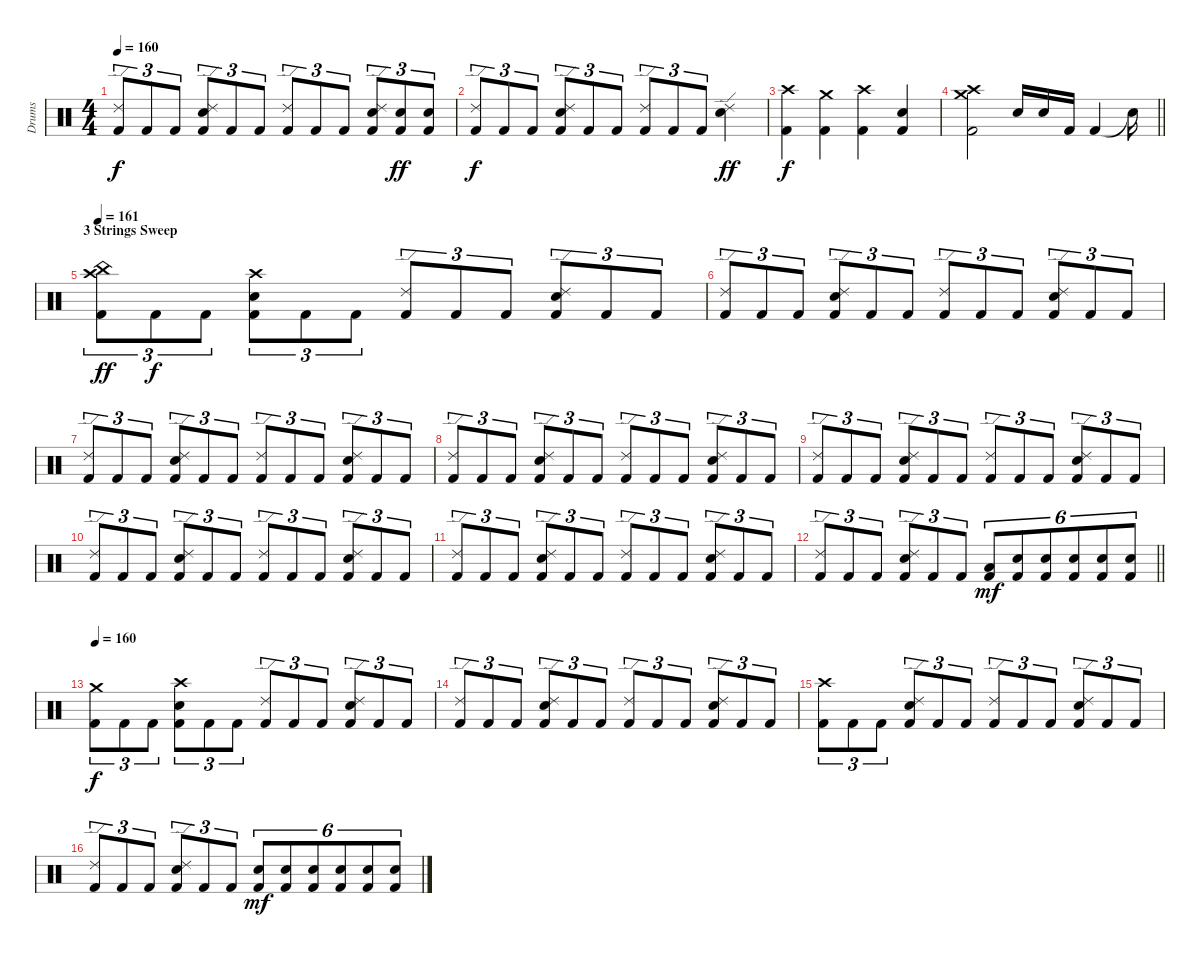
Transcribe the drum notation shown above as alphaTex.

\track ("Drums" "Drums") {instrument percussion}
\staff {score}
\articulation defaults
\ts (4 4)
\tempo 160
\clef neutral
\ks c
("Ride (edge) 2" "Kick (hit) 2").8{tu (3 2) dy f} "Kick (hit) 2".8{tu (3 2)} "Kick (hit) 2".8{tu (3 2)} ("Ride (edge) 2" "Snare (hit) 2" "Kick (hit) 2").8{tu (3 2)} "Kick (hit) 2".8{tu (3 2)} "Kick (hit) 2".8{tu (3 2)} ("Ride (edge) 2" "Kick (hit) 2").8{tu (3 2)} "Kick (hit) 2".8{tu (3 2)} "Kick (hit) 2".8{tu (3 2)} ("Ride (edge) 2" "Snare (hit) 2" "Kick (hit) 2").8{tu (3 2)} ("Snare (hit) 2" "Kick (hit) 2").8{tu (3 2) dy ff} ("Snare (hit) 2" "Kick (hit) 2").8{tu (3 2)} |
\ks aminor
("Ride (edge) 2" "Kick (hit) 2").8{tu (3 2) dy f} "Kick (hit) 2".8{tu (3 2)} "Kick (hit) 2".8{tu (3 2)} ("Ride (edge) 2" "Snare (hit) 2" "Kick (hit) 2").8{tu (3 2)} "Kick (hit) 2".8{tu (3 2)} "Kick (hit) 2".8{tu (3 2)} ("Ride (edge) 2" "Kick (hit) 2").8{tu (3 2)} "Kick (hit) 2".8{tu (3 2)} "Kick (hit) 2".8{tu (3 2)} ("Ride (edge) 2" "Electric Snare (hit)").4{dy ff} |
\ks c
("Crash high (hit)" "Kick (hit) 2").4{dy f} ("Crash medium (hit)" "Kick (hit) 2").4 ("Crash high (hit)" "Kick (hit) 2").4 ("Electric Snare (hit)" "Kick (hit) 2").4 |
\barLineRight lightlight
("Crash high (hit)" "Crash medium (hit)" "Kick (hit) 2").2 "Snare (hit) 2".16 "Snare (hit) 2".16 "Kick (hit) 2".16 "Kick (hit) 2".4 "Snare (hit)"{t}.16 |
\section ("" "3 Strings Sweep ")
\tempo 161
("China (hit)" "Crash high (hit)" "Kick (hit) 2").8{tu (3 2) dy ff} "Kick (hit) 2".8{tu (3 2) dy f} "Kick (hit) 2".8{tu (3 2)} ("Crash high (hit)" "Snare (hit) 2" "Kick (hit) 2").8{tu (3 2)} "Kick (hit) 2".8{tu (3 2)} "Kick (hit) 2".8{tu (3 2)} ("Ride (edge) 2" "Kick (hit) 2").8{tu (3 2)} "Kick (hit) 2".8{tu (3 2)} "Kick (hit) 2".8{tu (3 2)} ("Ride (edge) 2" "Snare (hit) 2" "Kick (hit) 2").8{tu (3 2)} "Kick (hit) 2".8{tu (3 2)} "Kick (hit) 2".8{tu (3 2)} |
("Ride (edge) 2" "Kick (hit) 2").8{tu (3 2)} "Kick (hit) 2".8{tu (3 2)} "Kick (hit) 2".8{tu (3 2)} ("Ride (edge) 2" "Snare (hit) 2" "Kick (hit) 2").8{tu (3 2)} "Kick (hit) 2".8{tu (3 2)} "Kick (hit) 2".8{tu (3 2)} ("Ride (edge) 2" "Kick (hit) 2").8{tu (3 2)} "Kick (hit) 2".8{tu (3 2)} "Kick (hit) 2".8{tu (3 2)} ("Ride (edge) 2" "Snare (hit) 2" "Kick (hit) 2").8{tu (3 2)} "Kick (hit) 2".8{tu (3 2)} "Kick (hit) 2".8{tu (3 2)} |
("Ride (edge) 2" "Kick (hit) 2").8{tu (3 2)} "Kick (hit) 2".8{tu (3 2)} "Kick (hit) 2".8{tu (3 2)} ("Ride (edge) 2" "Snare (hit) 2" "Kick (hit) 2").8{tu (3 2)} "Kick (hit) 2".8{tu (3 2)} "Kick (hit) 2".8{tu (3 2)} ("Ride (edge) 2" "Kick (hit) 2").8{tu (3 2)} "Kick (hit) 2".8{tu (3 2)} "Kick (hit) 2".8{tu (3 2)} ("Ride (edge) 2" "Snare (hit) 2" "Kick (hit) 2").8{tu (3 2)} "Kick (hit) 2".8{tu (3 2)} "Kick (hit) 2".8{tu (3 2)} |
("Ride (edge) 2" "Kick (hit) 2").8{tu (3 2)} "Kick (hit) 2".8{tu (3 2)} "Kick (hit) 2".8{tu (3 2)} ("Ride (edge) 2" "Snare (hit) 2" "Kick (hit) 2").8{tu (3 2)} "Kick (hit) 2".8{tu (3 2)} "Kick (hit) 2".8{tu (3 2)} ("Ride (edge) 2" "Kick (hit) 2").8{tu (3 2)} "Kick (hit) 2".8{tu (3 2)} "Kick (hit) 2".8{tu (3 2)} ("Ride (edge) 2" "Snare (hit) 2" "Kick (hit) 2").8{tu (3 2)} "Kick (hit) 2".8{tu (3 2)} "Kick (hit) 2".8{tu (3 2)} |
("Ride (edge) 2" "Kick (hit) 2").8{tu (3 2)} "Kick (hit) 2".8{tu (3 2)} "Kick (hit) 2".8{tu (3 2)} ("Ride (edge) 2" "Snare (hit) 2" "Kick (hit) 2").8{tu (3 2)} "Kick (hit) 2".8{tu (3 2)} "Kick (hit) 2".8{tu (3 2)} ("Ride (edge) 2" "Kick (hit) 2").8{tu (3 2)} "Kick (hit) 2".8{tu (3 2)} "Kick (hit) 2".8{tu (3 2)} ("Ride (edge) 2" "Snare (hit) 2" "Kick (hit) 2").8{tu (3 2)} "Kick (hit) 2".8{tu (3 2)} "Kick (hit) 2".8{tu (3 2)} |
("Ride (edge) 2" "Kick (hit) 2").8{tu (3 2)} "Kick (hit) 2".8{tu (3 2)} "Kick (hit) 2".8{tu (3 2)} ("Ride (edge) 2" "Snare (hit) 2" "Kick (hit) 2").8{tu (3 2)} "Kick (hit) 2".8{tu (3 2)} "Kick (hit) 2".8{tu (3 2)} ("Ride (edge) 2" "Kick (hit) 2").8{tu (3 2)} "Kick (hit) 2".8{tu (3 2)} "Kick (hit) 2".8{tu (3 2)} ("Ride (edge) 2" "Snare (hit) 2" "Kick (hit) 2").8{tu (3 2)} "Kick (hit) 2".8{tu (3 2)} "Kick (hit) 2".8{tu (3 2)} |
("Ride (edge) 2" "Kick (hit) 2").8{tu (3 2)} "Kick (hit) 2".8{tu (3 2)} "Kick (hit) 2".8{tu (3 2)} ("Ride (edge) 2" "Snare (hit) 2" "Kick (hit) 2").8{tu (3 2)} "Kick (hit) 2".8{tu (3 2)} "Kick (hit) 2".8{tu (3 2)} ("Ride (edge) 2" "Kick (hit) 2").8{tu (3 2)} "Kick (hit) 2".8{tu (3 2)} "Kick (hit) 2".8{tu (3 2)} ("Ride (edge) 2" "Snare (hit) 2" "Kick (hit) 2").8{tu (3 2)} "Kick (hit) 2".8{tu (3 2)} "Kick (hit) 2".8{tu (3 2)} |
\barLineRight lightlight
("Ride (edge) 2" "Kick (hit) 2").8{tu (3 2)} "Kick (hit) 2".8{tu (3 2)} "Kick (hit) 2".8{tu (3 2)} ("Ride (edge) 2" "Snare (hit) 2" "Kick (hit) 2").8{tu (3 2)} "Kick (hit) 2".8{tu (3 2)} "Kick (hit) 2".8{tu (3 2)} ("Low Tom (hit)" "Kick (hit) 2").8{tu (6 4) dy mf} ("Snare (hit) 2" "Kick (hit) 2").8{tu (6 4)} ("Snare (hit) 2" "Kick (hit) 2").8{tu (6 4)} ("Snare (hit) 2" "Kick (hit) 2").8{tu (6 4)} ("Snare (hit) 2" "Kick (hit) 2").8{tu (6 4)} ("Snare (hit) 2" "Kick (hit) 2").8{tu (6 4)} |
\section ("" "")
\tempo 160
("Crash medium (hit)" "Kick (hit) 2").8{tu (3 2) dy f} "Kick (hit) 2".8{tu (3 2)} "Kick (hit) 2".8{tu (3 2)} ("Crash high (hit)" "Snare (hit) 2" "Kick (hit) 2").8{tu (3 2)} "Kick (hit) 2".8{tu (3 2)} "Kick (hit) 2".8{tu (3 2)} ("Ride (edge) 2" "Kick (hit) 2").8{tu (3 2)} "Kick (hit) 2".8{tu (3 2)} "Kick (hit) 2".8{tu (3 2)} ("Ride (edge) 2" "Snare (hit) 2" "Kick (hit) 2").8{tu (3 2)} "Kick (hit) 2".8{tu (3 2)} "Kick (hit) 2".8{tu (3 2)} |
("Ride (edge) 2" "Kick (hit) 2").8{tu (3 2)} "Kick (hit) 2".8{tu (3 2)} "Kick (hit) 2".8{tu (3 2)} ("Ride (edge) 2" "Snare (hit) 2" "Kick (hit) 2").8{tu (3 2)} "Kick (hit) 2".8{tu (3 2)} "Kick (hit) 2".8{tu (3 2)} ("Ride (edge) 2" "Kick (hit) 2").8{tu (3 2)} "Kick (hit) 2".8{tu (3 2)} "Kick (hit) 2".8{tu (3 2)} ("Ride (edge) 2" "Snare (hit) 2" "Kick (hit) 2").8{tu (3 2)} "Kick (hit) 2".8{tu (3 2)} "Kick (hit) 2".8{tu (3 2)} |
("Crash high (hit)" "Kick (hit) 2").8{tu (3 2)} "Kick (hit) 2".8{tu (3 2)} "Kick (hit) 2".8{tu (3 2)} ("Ride (edge) 2" "Snare (hit) 2" "Kick (hit) 2").8{tu (3 2)} "Kick (hit) 2".8{tu (3 2)} "Kick (hit) 2".8{tu (3 2)} ("Ride (edge) 2" "Kick (hit) 2").8{tu (3 2)} "Kick (hit) 2".8{tu (3 2)} "Kick (hit) 2".8{tu (3 2)} ("Ride (edge) 2" "Snare (hit) 2" "Kick (hit) 2").8{tu (3 2)} "Kick (hit) 2".8{tu (3 2)} "Kick (hit) 2".8{tu (3 2)} |
("Ride (edge) 2" "Kick (hit) 2").8{tu (3 2)} "Kick (hit) 2".8{tu (3 2)} "Kick (hit) 2".8{tu (3 2)} ("Ride (edge) 2" "Snare (hit) 2" "Kick (hit) 2").8{tu (3 2)} "Kick (hit) 2".8{tu (3 2)} "Kick (hit) 2".8{tu (3 2)} ("Snare (hit) 2" "Kick (hit) 2").8{tu (6 4) dy mf} ("Snare (hit) 2" "Kick (hit) 2").8{tu (6 4)} ("Snare (hit) 2" "Kick (hit) 2").8{tu (6 4)} ("Snare (hit) 2" "Kick (hit) 2").8{tu (6 4)} ("Snare (hit) 2" "Kick (hit) 2").8{tu (6 4)} ("Snare (hit) 2" "Kick (hit) 2").8{tu (6 4)}
